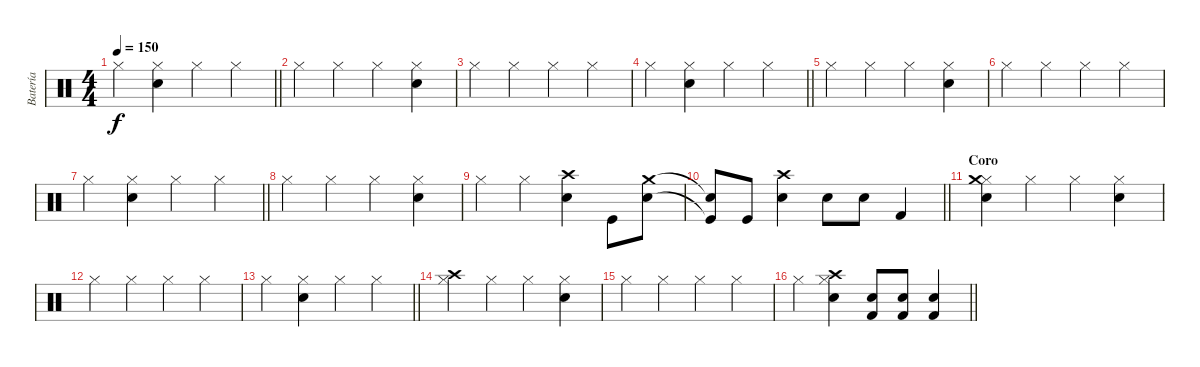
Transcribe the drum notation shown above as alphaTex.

\track ("Batería" "Batería") {instrument percussion}
\staff {score}
\articulation defaults
\ts (4 4)
\tempo 150
\clef neutral
\barLineRight lightlight
\ks c "Hi-Hat (closed)".4{dy f}
("Hi-Hat (closed)" "Electric Snare (hit)").4 "Hi-Hat (closed)".4 "Hi-Hat (closed)".4 |
"Hi-Hat (closed)".4 "Hi-Hat (closed)".4 "Hi-Hat (closed)".4 ("Hi-Hat (closed)" "Electric Snare (hit)").4 |
"Hi-Hat (closed)".4 "Hi-Hat (closed)".4 "Hi-Hat (closed)".4 "Hi-Hat (closed)".4 |
\barLineRight lightlight "Hi-Hat (closed)".4
("Hi-Hat (closed)" "Electric Snare (hit)").4 "Hi-Hat (closed)".4 "Hi-Hat (closed)".4 |
"Hi-Hat (closed)".4 "Hi-Hat (closed)".4 "Hi-Hat (closed)".4 ("Hi-Hat (closed)" "Electric Snare (hit)").4 |
"Hi-Hat (closed)".4 "Hi-Hat (closed)".4 "Hi-Hat (closed)".4 "Hi-Hat (closed)".4 |
\barLineRight lightlight "Hi-Hat (closed)".4
("Hi-Hat (closed)" "Electric Snare (hit)").4 "Hi-Hat (closed)".4 "Hi-Hat (closed)".4 |
"Hi-Hat (closed)".4 "Hi-Hat (closed)".4 "Hi-Hat (closed)".4 ("Hi-Hat (closed)" "Electric Snare (hit)").4 |
"Hi-Hat (closed)".4 "Hi-Hat (closed)".4 ("Crash high (hit)" "Snare (hit) 2").4 "Kick (hit)".8 ("Crash medium (hit)" "Electric Snare (hit)").8 |
\barLineRight lightlight
("Snare (hit)"{t} "Kick (hit)"{t}).8 "Kick (hit)".8 ("Crash high (hit)" "Snare (hit) 2").4 "Electric Snare (hit)".8 "Electric Snare (hit)".8 "Kick (hit) 2".4 |
\section ("" "Coro")
("Hi-Hat (closed)" "Electric Snare (hit)" "Crash medium (hit)").4 "Hi-Hat (closed)".4 "Hi-Hat (closed)".4 ("Hi-Hat (closed)" "Electric Snare (hit)").4 |
"Hi-Hat (closed)".4 "Hi-Hat (closed)".4 "Hi-Hat (closed)".4 "Hi-Hat (closed)".4 |
\barLineRight lightlight "Hi-Hat (closed)".4
("Hi-Hat (closed)" "Electric Snare (hit)").4 "Hi-Hat (closed)".4 "Hi-Hat (closed)".4 |
("Hi-Hat (closed)" "Crash high (hit)").4 "Hi-Hat (closed)".4 "Hi-Hat (closed)".4 ("Hi-Hat (closed)" "Electric Snare (hit)").4 |
"Hi-Hat (closed)".4 "Hi-Hat (closed)".4 "Hi-Hat (closed)".4 "Hi-Hat (closed)".4 |
\barLineRight lightlight "Hi-Hat (closed)".4
("Crash high (hit)" "Hi-Hat (closed)" "Snare (hit) 2").4 ("Snare (hit) 2" "Kick (hit) 2").8 ("Snare (hit) 2" "Kick (hit) 2").8 ("Snare (hit) 2" "Kick (hit) 2").4
